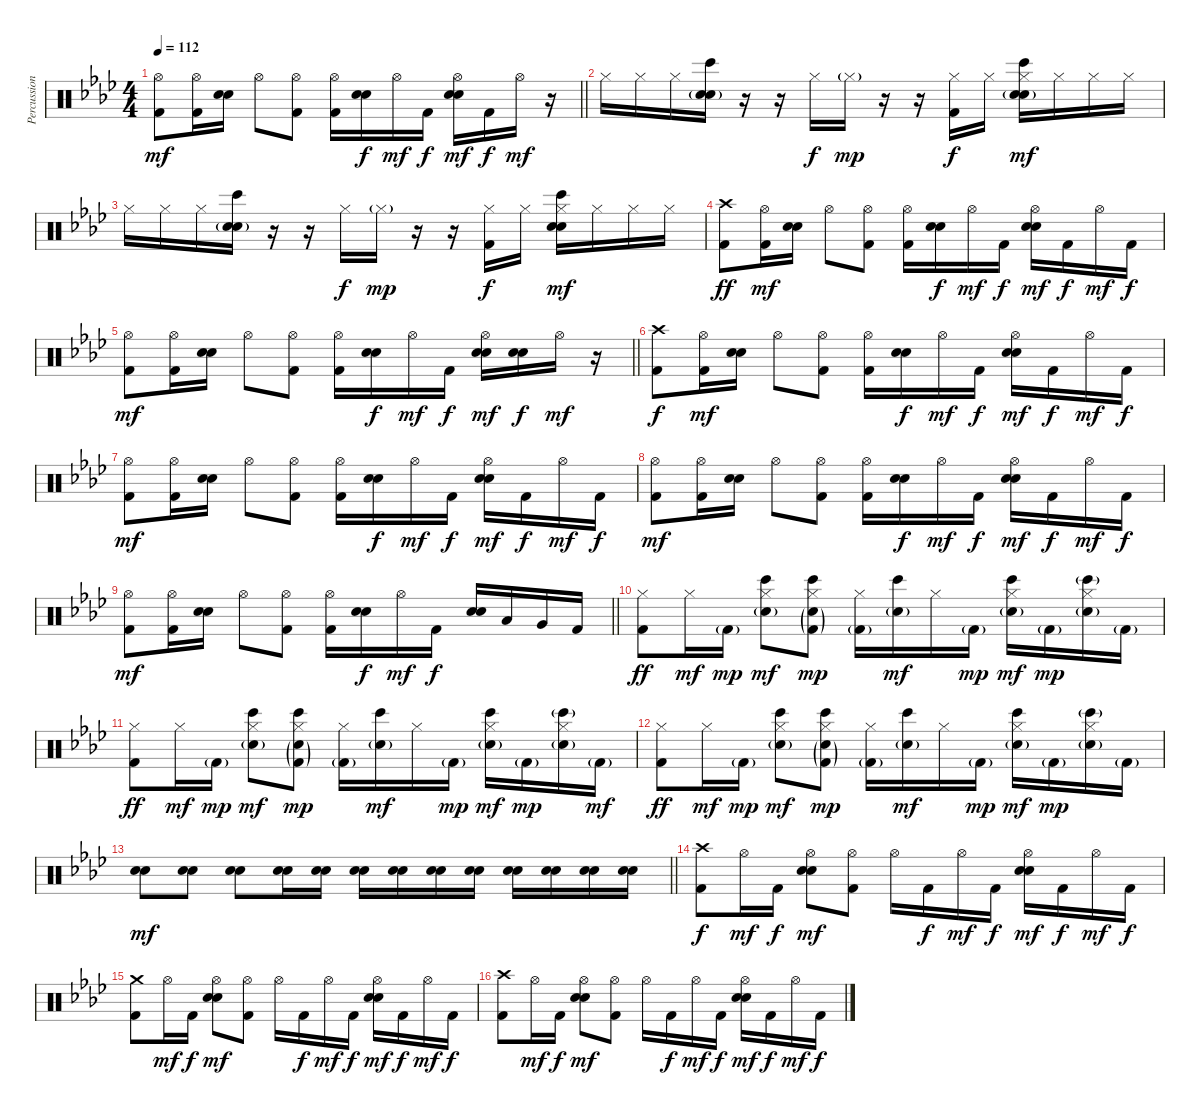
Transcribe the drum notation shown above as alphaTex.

\track ("Percussion" "Percussion") {instrument percussion}
\staff {score}
\articulation defaults
\ts (4 4)
\tempo 112
\clef neutral
\barLineRight lightlight
\ks ab
("Hi-Hat (open)" "Kick (hit) 2").8{dy mf} ("Hi-Hat (open)" "Kick (hit) 2").16 ("Electric Snare (hit)" "Snare (hit) 2").16 "Hi-Hat (open)".8 ("Hi-Hat (open)" "Kick (hit) 2").8 ("Hi-Hat (open)" "Kick (hit) 2").16 ("Electric Snare (hit)" "Snare (hit) 2").16{dy f} "Hi-Hat (open)".16{dy mf} "Kick (hit) 2".16{dy f} ("Hi-Hat (open)" "Electric Snare (hit)" "Snare (hit) 2").16{dy mf} "Kick (hit) 2".16{dy f} "Hi-Hat (open)".16{dy mf} r.16 |
"Hi-Hat (closed)".16 "Hi-Hat (closed)".16 "Hi-Hat (closed)".16 ("Bongo High (hit)" "Electric Snare (hit)"{g} "Snare (hit) 2").16 r.16 r.16 "Hi-Hat (closed)".16{dy f} "Hi-Hat (closed)"{g}.16{dy mp} r.16 r.16 ("Hi-Hat (closed)" "Kick (hit) 2").16{dy f} "Hi-Hat (closed)".16 ("Hi-Hat (closed)" "Bongo High (hit)" "Electric Snare (hit)"{g} "Snare (hit) 2").16{dy mf} "Hi-Hat (closed)".16 "Hi-Hat (closed)".16 "Hi-Hat (closed)".16 |
"Hi-Hat (closed)".16 "Hi-Hat (closed)".16 "Hi-Hat (closed)".16 ("Bongo High (hit)" "Electric Snare (hit)"{g} "Snare (hit) 2").16 r.16 r.16 "Hi-Hat (closed)".16{dy f} "Hi-Hat (closed)"{g}.16{dy mp} r.16 r.16 ("Hi-Hat (closed)" "Kick (hit) 2").16{dy f} "Hi-Hat (closed)".16 ("Hi-Hat (closed)" "Bongo High (hit)" "Electric Snare (hit)" "Snare (hit) 2").16{dy mf} "Hi-Hat (closed)".16 "Hi-Hat (closed)".16 "Hi-Hat (closed)".16 |
("Crash high (hit)" "Kick (hit) 2").8{dy ff} ("Hi-Hat (open)" "Kick (hit) 2").16{dy mf} ("Electric Snare (hit)" "Snare (hit) 2").16 "Hi-Hat (open)".8 ("Hi-Hat (open)" "Kick (hit) 2").8 ("Hi-Hat (open)" "Kick (hit) 2").16 ("Electric Snare (hit)" "Snare (hit) 2").16{dy f} "Hi-Hat (open)".16{dy mf} "Kick (hit) 2".16{dy f} ("Hi-Hat (open)" "Electric Snare (hit)" "Snare (hit) 2").16{dy mf} "Kick (hit) 2".16{dy f} "Hi-Hat (open)".16{dy mf} "Kick (hit) 2".16{dy f} |
\barLineRight lightlight
("Hi-Hat (open)" "Kick (hit) 2").8{dy mf} ("Hi-Hat (open)" "Kick (hit) 2").16 ("Electric Snare (hit)" "Snare (hit) 2").16 "Hi-Hat (open)".8 ("Hi-Hat (open)" "Kick (hit) 2").8 ("Hi-Hat (open)" "Kick (hit) 2").16 ("Electric Snare (hit)" "Snare (hit) 2").16{dy f} "Hi-Hat (open)".16{dy mf} "Kick (hit) 2".16{dy f} ("Hi-Hat (open)" "Electric Snare (hit)" "Snare (hit) 2").16{dy mf} ("Electric Snare (hit)" "Snare (hit) 2").16{dy f} "Hi-Hat (open)".16{dy mf} r.16 |
("Crash high (hit)" "Kick (hit) 2").8{dy f} ("Hi-Hat (open)" "Kick (hit) 2").16{dy mf} ("Electric Snare (hit)" "Snare (hit) 2").16 "Hi-Hat (open)".8 ("Hi-Hat (open)" "Kick (hit) 2").8 ("Hi-Hat (open)" "Kick (hit) 2").16 ("Electric Snare (hit)" "Snare (hit) 2").16{dy f} "Hi-Hat (open)".16{dy mf} "Kick (hit) 2".16{dy f} ("Hi-Hat (open)" "Electric Snare (hit)" "Snare (hit) 2").16{dy mf} "Kick (hit) 2".16{dy f} "Hi-Hat (open)".16{dy mf} "Kick (hit) 2".16{dy f} |
("Hi-Hat (open)" "Kick (hit) 2").8{dy mf} ("Hi-Hat (open)" "Kick (hit) 2").16 ("Electric Snare (hit)" "Snare (hit) 2").16 "Hi-Hat (open)".8 ("Hi-Hat (open)" "Kick (hit) 2").8 ("Hi-Hat (open)" "Kick (hit) 2").16 ("Electric Snare (hit)" "Snare (hit) 2").16{dy f} "Hi-Hat (open)".16{dy mf} "Kick (hit) 2".16{dy f} ("Hi-Hat (open)" "Electric Snare (hit)" "Snare (hit) 2").16{dy mf} "Kick (hit) 2".16{dy f} "Hi-Hat (open)".16{dy mf} "Kick (hit) 2".16{dy f} |
("Hi-Hat (open)" "Kick (hit) 2").8{dy mf} ("Hi-Hat (open)" "Kick (hit) 2").16 ("Electric Snare (hit)" "Snare (hit) 2").16 "Hi-Hat (open)".8 ("Hi-Hat (open)" "Kick (hit) 2").8 ("Hi-Hat (open)" "Kick (hit) 2").16 ("Electric Snare (hit)" "Snare (hit) 2").16{dy f} "Hi-Hat (open)".16{dy mf} "Kick (hit) 2".16{dy f} ("Hi-Hat (open)" "Electric Snare (hit)" "Snare (hit) 2").16{dy mf} "Kick (hit) 2".16{dy f} "Hi-Hat (open)".16{dy mf} "Kick (hit) 2".16{dy f} |
\barLineRight lightlight
("Hi-Hat (open)" "Kick (hit) 2").8{dy mf} ("Hi-Hat (open)" "Kick (hit) 2").16 ("Electric Snare (hit)" "Snare (hit) 2").16 "Hi-Hat (open)".8 ("Hi-Hat (open)" "Kick (hit) 2").8 ("Hi-Hat (open)" "Kick (hit) 2").16 ("Electric Snare (hit)" "Snare (hit) 2").16{dy f} "Hi-Hat (open)".16{dy mf} "Kick (hit) 2".16{dy f} ("Electric Snare (hit)" "Snare (hit) 2").16 "Low Tom (hit)".16 "Very Low Tom (hit)".16 "Kick (hit) 2".16 |
("Hi-Hat (closed)" "Kick (hit) 2").8{dy ff} "Hi-Hat (closed)".16{dy mf} "Kick (hit) 2"{g}.16{dy mp} ("Hi-Hat (closed)" "Snare (hit) 2"{g} "Bongo High (hit)").8{dy mf} ("Hi-Hat (closed)" "Snare (hit) 2"{g} "Bongo High (hit)" "Kick (hit) 2"{g}).8{dy mp} ("Hi-Hat (closed)" "Kick (hit) 2"{g}).16 ("Snare (hit) 2"{g} "Bongo High (hit)").16{dy mf} "Hi-Hat (closed)".16 "Kick (hit) 2"{g}.16{dy mp} ("Hi-Hat (closed)" "Snare (hit) 2"{g} "Bongo High (hit)").16{dy mf} "Kick (hit) 2"{g}.16{dy mp} ("Hi-Hat (closed)" "Snare (hit) 2"{g} "Bongo High (hit)"{g}).16 "Kick (hit) 2"{g}.16 |
("Hi-Hat (closed)" "Kick (hit) 2").8{dy ff} "Hi-Hat (closed)".16{dy mf} "Kick (hit) 2"{g}.16{dy mp} ("Hi-Hat (closed)" "Snare (hit) 2"{g} "Bongo High (hit)").8{dy mf} ("Hi-Hat (closed)" "Snare (hit) 2"{g} "Bongo High (hit)" "Kick (hit) 2"{g}).8{dy mp} ("Hi-Hat (closed)" "Kick (hit) 2"{g}).16 ("Snare (hit) 2"{g} "Bongo High (hit)").16{dy mf} "Hi-Hat (closed)".16 "Kick (hit) 2"{g}.16{dy mp} ("Hi-Hat (closed)" "Snare (hit) 2"{g} "Bongo High (hit)").16{dy mf} "Kick (hit) 2"{g}.16{dy mp} ("Hi-Hat (closed)" "Snare (hit) 2"{g} "Bongo High (hit)"{g}).16 "Kick (hit) 2"{g}.16{dy mf} |
("Hi-Hat (closed)" "Kick (hit) 2").8{dy ff} "Hi-Hat (closed)".16{dy mf} "Kick (hit) 2"{g}.16{dy mp} ("Hi-Hat (closed)" "Snare (hit) 2"{g} "Bongo High (hit)").8{dy mf} ("Hi-Hat (closed)" "Snare (hit) 2"{g} "Bongo High (hit)" "Kick (hit) 2"{g}).8{dy mp} ("Hi-Hat (closed)" "Kick (hit) 2"{g}).16 ("Snare (hit) 2"{g} "Bongo High (hit)").16{dy mf} "Hi-Hat (closed)".16 "Kick (hit) 2"{g}.16{dy mp} ("Hi-Hat (closed)" "Snare (hit) 2"{g} "Bongo High (hit)").16{dy mf} "Kick (hit) 2"{g}.16{dy mp} ("Hi-Hat (closed)" "Snare (hit) 2"{g} "Bongo High (hit)"{g}).16 "Kick (hit) 2"{g}.16 |
\barLineRight lightlight
("Electric Snare (hit)" "Snare (hit) 2").8{dy mf} ("Electric Snare (hit)" "Snare (hit) 2").8 ("Electric Snare (hit)" "Snare (hit) 2").8 ("Electric Snare (hit)" "Snare (hit) 2").16 ("Electric Snare (hit)" "Snare (hit) 2").16 ("Electric Snare (hit)" "Snare (hit) 2").16 ("Electric Snare (hit)" "Snare (hit) 2").16 ("Electric Snare (hit)" "Snare (hit) 2").16 ("Electric Snare (hit)" "Snare (hit) 2").16 ("Electric Snare (hit)" "Snare (hit) 2").16 ("Electric Snare (hit)" "Snare (hit) 2").16 ("Electric Snare (hit)" "Snare (hit) 2").16 ("Electric Snare (hit)" "Snare (hit) 2").16 |
("Crash high (hit)" "Kick (hit) 2").8{dy f} "Hi-Hat (open)".16{dy mf} "Kick (hit) 2".16{dy f} ("Hi-Hat (open)" "Electric Snare (hit)" "Snare (hit) 2").8{dy mf} ("Hi-Hat (open)" "Kick (hit) 2").8 "Hi-Hat (open)".16 "Kick (hit) 2".16{dy f} "Hi-Hat (open)".16{dy mf} "Kick (hit) 2".16{dy f} ("Hi-Hat (open)" "Electric Snare (hit)" "Snare (hit) 2").16{dy mf} "Kick (hit) 2".16{dy f} "Hi-Hat (open)".16{dy mf} "Kick (hit) 2".16{dy f} |
("Crash medium (hit)" "Kick (hit) 2").8 "Hi-Hat (open)".16{dy mf} "Kick (hit) 2".16{dy f} ("Hi-Hat (open)" "Electric Snare (hit)" "Snare (hit) 2").8{dy mf} ("Hi-Hat (open)" "Kick (hit) 2").8 "Hi-Hat (open)".16 "Kick (hit) 2".16{dy f} "Hi-Hat (open)".16{dy mf} "Kick (hit) 2".16{dy f} ("Hi-Hat (open)" "Electric Snare (hit)" "Snare (hit) 2").16{dy mf} "Kick (hit) 2".16{dy f} "Hi-Hat (open)".16{dy mf} "Kick (hit) 2".16{dy f} |
("Crash high (hit)" "Kick (hit) 2").8 "Hi-Hat (open)".16{dy mf} "Kick (hit) 2".16{dy f} ("Hi-Hat (open)" "Electric Snare (hit)" "Snare (hit) 2").8{dy mf} ("Hi-Hat (open)" "Kick (hit) 2").8 "Hi-Hat (open)".16 "Kick (hit) 2".16{dy f} "Hi-Hat (open)".16{dy mf} "Kick (hit) 2".16{dy f} ("Hi-Hat (open)" "Electric Snare (hit)" "Snare (hit) 2").16{dy mf} "Kick (hit) 2".16{dy f} "Hi-Hat (open)".16{dy mf} "Kick (hit) 2".16{dy f}
